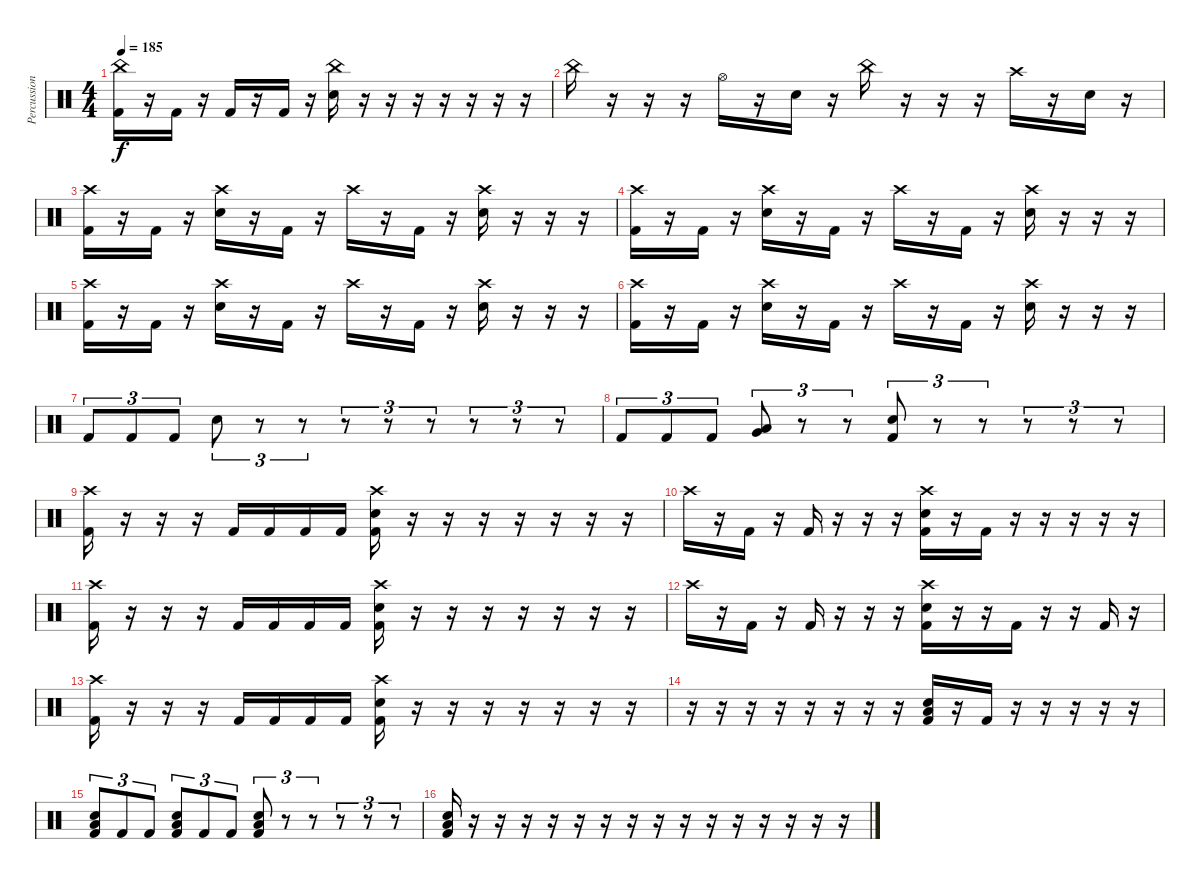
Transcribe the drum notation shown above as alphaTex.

\track ("Percussion" "Percussion") {instrument percussion}
\staff {score}
\articulation defaults
\ts (4 4)
\tempo 185
\clef neutral
\ks c
("China (hit)" "Kick (hit) 2").16{dy f} r.16 "Kick (hit) 2".16 r.16 "Kick (hit) 2".16 r.16 "Kick (hit) 2".16 r.16 ("China (hit)" "Electric Snare (hit)").16 r.16 r.16 r.16 r.16 r.16 r.16 r.16 |
"China (hit)".16 r.16 r.16 r.16 "Hi-Hat (open)".16 r.16 "Electric Snare (hit)".16 r.16 "China (hit)".16 r.16 r.16 r.16 "Crash high (hit)".16 r.16 "Electric Snare (hit)".16 r.16 |
("Crash high (hit)" "Kick (hit) 2").16 r.16 "Kick (hit) 2".16 r.16 ("Crash high (hit)" "Electric Snare (hit)").16 r.16 "Kick (hit) 2".16 r.16 "Crash high (hit)".16 r.16 "Kick (hit) 2".16 r.16 ("Crash high (hit)" "Electric Snare (hit)").16 r.16 r.16 r.16 |
("Crash high (hit)" "Kick (hit) 2").16 r.16 "Kick (hit) 2".16 r.16 ("Crash high (hit)" "Electric Snare (hit)").16 r.16 "Kick (hit) 2".16 r.16 "Crash high (hit)".16 r.16 "Kick (hit) 2".16 r.16 ("Crash high (hit)" "Electric Snare (hit)").16 r.16 r.16 r.16 |
("Crash high (hit)" "Kick (hit) 2").16 r.16 "Kick (hit) 2".16 r.16 ("Crash high (hit)" "Electric Snare (hit)").16 r.16 "Kick (hit) 2".16 r.16 "Crash high (hit)".16 r.16 "Kick (hit) 2".16 r.16 ("Crash high (hit)" "Electric Snare (hit)").16 r.16 r.16 r.16 |
("Crash high (hit)" "Kick (hit) 2").16 r.16 "Kick (hit) 2".16 r.16 ("Crash high (hit)" "Electric Snare (hit)").16 r.16 "Kick (hit) 2".16 r.16 "Crash high (hit)".16 r.16 "Kick (hit) 2".16 r.16 ("Crash high (hit)" "Electric Snare (hit)").16 r.16 r.16 r.16 |
"Kick (hit) 2".8{tu (3 2)} "Kick (hit) 2".8{tu (3 2)} "Kick (hit) 2".8{tu (3 2)} "Electric Snare (hit)".8{tu (3 2)} r.8{tu (3 2)} r.8{tu (3 2)} r.8{tu (3 2)} r.8{tu (3 2)} r.8{tu (3 2)} r.8{tu (3 2)} r.8{tu (3 2)} r.8{tu (3 2)} |
"Kick (hit) 2".8{tu (3 2)} "Kick (hit) 2".8{tu (3 2)} "Kick (hit) 2".8{tu (3 2)} ("Very Low Tom (hit)" "Low Floor Tom (hit)").8{tu (3 2)} r.8{tu (3 2)} r.8{tu (3 2)} ("Electric Snare (hit)" "Kick (hit) 2").8{tu (3 2)} r.8{tu (3 2)} r.8{tu (3 2)} r.8{tu (3 2)} r.8{tu (3 2)} r.8{tu (3 2)} |
("Crash high (hit)" "Kick (hit) 2").16 r.16 r.16 r.16 "Kick (hit) 2".16 "Kick (hit) 2".16 "Kick (hit) 2".16 "Kick (hit) 2".16 ("Crash high (hit)" "Electric Snare (hit)" "Kick (hit) 2").16 r.16 r.16 r.16 r.16 r.16 r.16 r.16 |
"Crash high (hit)".16 r.16 "Kick (hit) 2".16 r.16 "Kick (hit) 2".16 r.16 r.16 r.16 ("Crash high (hit)" "Electric Snare (hit)" "Kick (hit) 2").16 r.16 "Kick (hit) 2".16 r.16 r.16 r.16 r.16 r.16 |
("Crash high (hit)" "Kick (hit) 2").16 r.16 r.16 r.16 "Kick (hit) 2".16 "Kick (hit) 2".16 "Kick (hit) 2".16 "Kick (hit) 2".16 ("Crash high (hit)" "Electric Snare (hit)" "Kick (hit) 2").16 r.16 r.16 r.16 r.16 r.16 r.16 r.16 |
"Crash high (hit)".16 r.16 "Kick (hit) 2".16 r.16 "Kick (hit) 2".16 r.16 r.16 r.16 ("Crash high (hit)" "Electric Snare (hit)" "Kick (hit) 2").16 r.16 r.16 "Kick (hit) 2".16 r.16 r.16 "Kick (hit) 2".16 r.16 |
("Crash high (hit)" "Kick (hit) 2").16 r.16 r.16 r.16 "Kick (hit) 2".16 "Kick (hit) 2".16 "Kick (hit) 2".16 "Kick (hit) 2".16 ("Crash high (hit)" "Electric Snare (hit)" "Kick (hit) 2").16 r.16 r.16 r.16 r.16 r.16 r.16 r.16 |
r.16 r.16 r.16 r.16 r.16 r.16 r.16 r.16 ("Low Floor Tom (hit)" "Electric Snare (hit)" "Kick (hit) 2").16 r.16 "Kick (hit) 2".16 r.16 r.16 r.16 r.16 r.16 |
("Low Floor Tom (hit)" "Electric Snare (hit)" "Kick (hit) 2").8{tu (3 2)} "Kick (hit) 2".8{tu (3 2)} "Kick (hit) 2".8{tu (3 2)} ("Low Floor Tom (hit)" "Electric Snare (hit)" "Kick (hit) 2").8{tu (3 2)} "Kick (hit) 2".8{tu (3 2)} "Kick (hit) 2".8{tu (3 2)} ("Low Floor Tom (hit)" "Electric Snare (hit)" "Kick (hit) 2").8{tu (3 2)} r.8{tu (3 2)} r.8{tu (3 2)} r.8{tu (3 2)} r.8{tu (3 2)} r.8{tu (3 2)} |
("Low Floor Tom (hit)" "Electric Snare (hit)" "Kick (hit) 2").16 r.16 r.16 r.16 r.16 r.16 r.16 r.16 r.16 r.16 r.16 r.16 r.16 r.16 r.16 r.16
